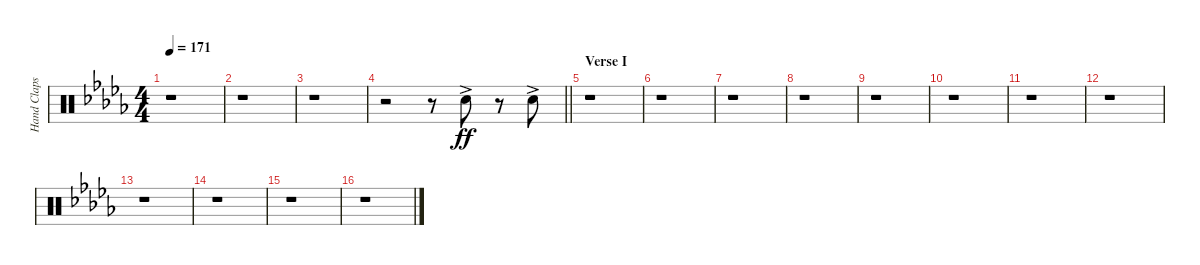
\track ("Hand Claps" "Hand Claps") {instrument percussion}
\staff {score}
\articulation defaults
\ts (4 4)
\tempo 171
\clef neutral
\ks db
r.1{dy ff} |
r.1 |
r.1 |
\barLineRight lightlight
r.2 r.8 "Hand Clap (hit)"{ac}.8 r.8 "Hand Clap (hit)"{ac}.8 |
\section ("" "Verse I")
r.1 |
r.1 |
r.1 |
r.1 |
r.1 |
r.1 |
r.1 |
r.1 |
r.1 |
r.1 |
r.1 |
r.1
